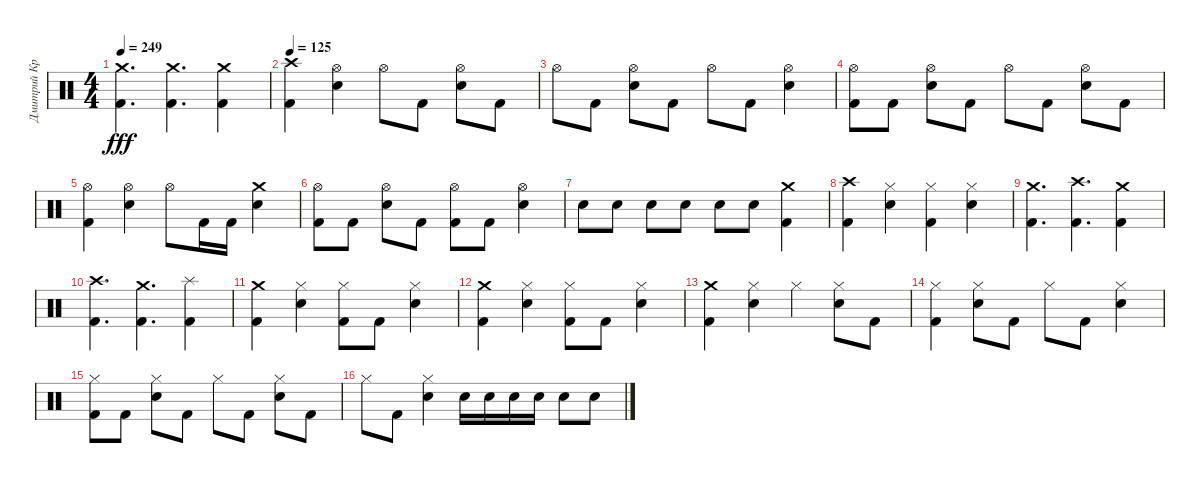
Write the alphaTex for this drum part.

\track ("Дмитрий Кривенков" "Дмитрий Кр") {instrument percussion}
\staff {score}
\articulation defaults
\ts (4 4)
\tempo 249
\clef neutral
\ks c
("Kick (hit) 2" "Crash medium (hit)").4{d dy fff} ("Kick (hit) 2" "Crash medium (hit)").4{d} ("Kick (hit) 2" "Crash medium (hit)").4 |
\tempo 125
("Kick (hit) 2" "Crash high (hit)").4 ("Electric Snare (hit)" "Hi-Hat (open)").4 "Hi-Hat (open)".8 "Kick (hit) 2".8 ("Electric Snare (hit)" "Hi-Hat (open)").8 "Kick (hit) 2".8 |
"Hi-Hat (open)".8 "Kick (hit) 2".8 ("Electric Snare (hit)" "Hi-Hat (open)").8 "Kick (hit) 2".8 "Hi-Hat (open)".8 "Kick (hit) 2".8 ("Electric Snare (hit)" "Hi-Hat (open)").4 |
("Kick (hit) 2" "Hi-Hat (open)").8 "Kick (hit) 2".8 ("Electric Snare (hit)" "Hi-Hat (open)").8 "Kick (hit) 2".8 "Hi-Hat (open)".8 "Kick (hit) 2".8 ("Electric Snare (hit)" "Hi-Hat (open)").8 "Kick (hit) 2".8 |
("Kick (hit) 2" "Hi-Hat (open)").4 ("Electric Snare (hit)" "Hi-Hat (open)").4 "Hi-Hat (open)".8 "Kick (hit) 2".16 "Kick (hit) 2".16 ("Electric Snare (hit)" "Crash medium (hit)").4 |
("Kick (hit) 2" "Hi-Hat (open)").8 "Kick (hit) 2".8 ("Electric Snare (hit)" "Hi-Hat (open)").8 "Kick (hit) 2".8 ("Kick (hit) 2" "Hi-Hat (open)").8 "Kick (hit) 2".8 ("Electric Snare (hit)" "Hi-Hat (open)").4 |
"Electric Snare (hit)".8 "Electric Snare (hit)".8 "Electric Snare (hit)".8 "Electric Snare (hit)".8 "Electric Snare (hit)".8 "Electric Snare (hit)".8 ("Kick (hit) 2" "Crash medium (hit)").4 |
("Kick (hit) 2" "Crash high (hit)").4 ("Electric Snare (hit)" "Hi-Hat (closed)").4 ("Kick (hit) 2" "Hi-Hat (closed)").4 ("Electric Snare (hit)" "Hi-Hat (closed)").4 |
("Kick (hit) 2" "Crash medium (hit)").4{d} ("Kick (hit) 2" "Crash high (hit)").4{d} ("Kick (hit) 2" "Crash medium (hit)").4 |
("Kick (hit) 2" "Crash high (hit)").4{d} ("Kick (hit) 2" "Crash medium (hit)").4{d} ("Kick (hit) 2" "Splash (hit)").4 |
("Kick (hit) 2" "Crash medium (hit)").4 ("Electric Snare (hit)" "Hi-Hat (closed)").4 ("Kick (hit) 2" "Hi-Hat (closed)").8 "Kick (hit) 2".8 ("Electric Snare (hit)" "Hi-Hat (closed)").4 |
("Kick (hit) 2" "Crash medium (hit)").4 ("Electric Snare (hit)" "Hi-Hat (closed)").4 ("Kick (hit) 2" "Hi-Hat (closed)").8 "Kick (hit) 2".8 ("Electric Snare (hit)" "Hi-Hat (closed)").4 |
("Kick (hit) 2" "Crash medium (hit)").4 ("Electric Snare (hit)" "Hi-Hat (closed)").4 "Hi-Hat (closed)".4 ("Electric Snare (hit)" "Hi-Hat (closed)").8 "Kick (hit) 2".8 |
("Kick (hit) 2" "Hi-Hat (closed)").4 ("Electric Snare (hit)" "Hi-Hat (closed)").8 "Kick (hit) 2".8 "Hi-Hat (closed)".8 "Kick (hit) 2".8 ("Electric Snare (hit)" "Hi-Hat (closed)").4 |
("Kick (hit) 2" "Hi-Hat (closed)").8 "Kick (hit) 2".8 ("Electric Snare (hit)" "Hi-Hat (closed)").8 "Kick (hit) 2".8 "Hi-Hat (closed)".8 "Kick (hit) 2".8 ("Electric Snare (hit)" "Hi-Hat (closed)").8 "Kick (hit) 2".8 |
"Hi-Hat (closed)".8 "Kick (hit) 2".8 ("Electric Snare (hit)" "Hi-Hat (closed)").4 "Electric Snare (hit)".16 "Electric Snare (hit)".16 "Electric Snare (hit)".16 "Electric Snare (hit)".16 "Electric Snare (hit)".8 "Electric Snare (hit)".8
